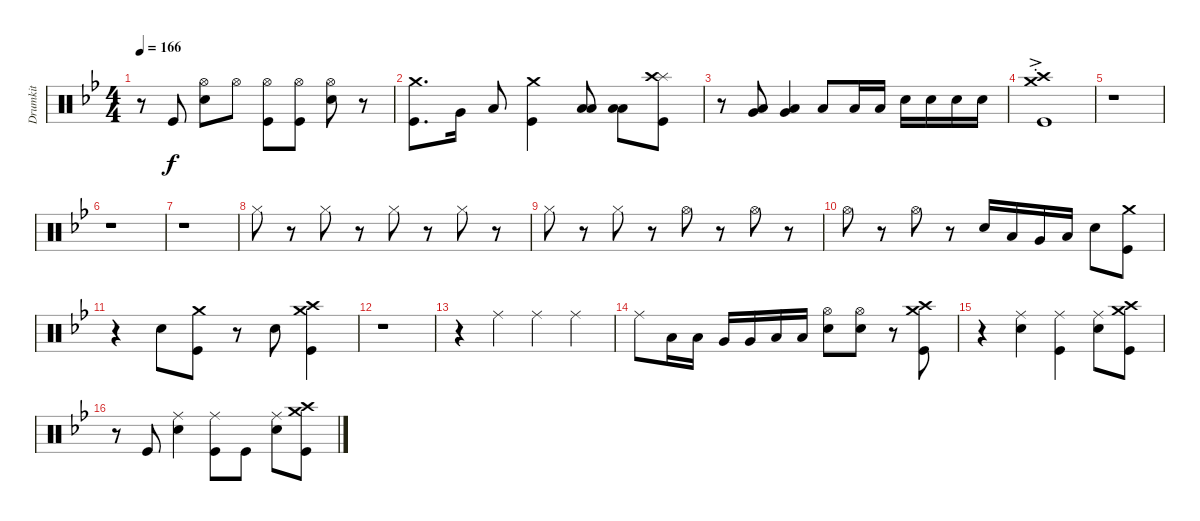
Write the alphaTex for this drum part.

\track ("Drumkit" "Drumkit") {instrument percussion}
\staff {score}
\articulation defaults
\ts (4 4)
\tempo 166
\clef neutral
\ks gminor
r.8{dy f} "Kick (hit)".8 ("Snare (hit) 2" "Hi-Hat (open)").8 "Hi-Hat (open)".8 ("Kick (hit)" "Hi-Hat (open)").8 ("Kick (hit)" "Hi-Hat (open)").8 ("Snare (hit) 2" "Hi-Hat (open)").8 r.8 |
("Kick (hit)" "Crash medium (hit)").8{d} "Very Low Tom (hit)".16 "Low Floor Tom (hit)".8 ("Kick (hit)" "Crash medium (hit)").4 ("Low Floor Tom (hit)" "Low Tom (hit)").8 ("Low Floor Tom (hit)" "Low Tom (hit)").8 ("Kick (hit)" "Splash (hit)" "Crash high (hit)").8 |
r.8 ("Low Tom (hit)" "Very Low Tom (hit)").8 ("Low Floor Tom (hit)" "Very Low Tom (hit)").4 "Low Floor Tom (hit)".8 "Low Tom (hit)".16 "Low Tom (hit)".16 "Snare (hit) 2".16 "Snare (hit) 2".16 "Snare (hit) 2".16 "Snare (hit) 2".16 |
("Kick (hit)" "Crash high (hit)"{ac st} "Crash medium (hit)"{ac st}).1 |
r.1 |
r.1 |
r.1 |
"Hi-Hat (closed)".8 r.8 "Hi-Hat (closed)".8 r.8 "Hi-Hat (closed)".8 r.8 "Hi-Hat (closed)".8 r.8 |
"Hi-Hat (closed)".8 r.8 "Hi-Hat (closed)".8 r.8 "Hi-Hat (open)".8 r.8 "Hi-Hat (open)".8 r.8 |
"Hi-Hat (open)".8 r.8 "Hi-Hat (open)".8 r.8 "Snare (hit) 2".16 "Low Tom (hit)".16 "Very Low Tom (hit)".16 "Low Floor Tom (hit)".16 "Snare (hit) 2".8 ("Kick (hit)" "Crash medium (hit)").8 |
r.4 "Snare (hit) 2".8 ("Kick (hit)" "Crash medium (hit)").8 r.8 "Snare (hit) 2".8 ("Kick (hit)" "Crash medium (hit)" "Crash high (hit)").4 |
r.1 |
r.4 "Ride (middle)".4 "Ride (middle)".4 "Ride (middle)".4 |
"Ride (middle)".8 "Low Tom (hit)".16 "Low Tom (hit)".16 "Very Low Tom (hit)".16 "Very Low Tom (hit)".16 "Low Floor Tom (hit)".16 "Low Floor Tom (hit)".16 ("Snare (hit) 2" "Hi-Hat (open)").8 ("Snare (hit) 2" "Hi-Hat (open)").8 r.8 ("Kick (hit)" "Crash high (hit)" "Crash medium (hit)").8 |
r.4 ("Snare (hit) 2" "Ride (middle)").4 ("Kick (hit)" "Ride (middle)").4 ("Snare (hit) 2" "Ride (middle)").8 ("Kick (hit)" "Crash high (hit)" "Crash medium (hit)").8 |
r.8 "Kick (hit)".8 ("Snare (hit) 2" "Ride (middle)").4 ("Kick (hit)" "Ride (middle)").8 "Kick (hit)".8 ("Snare (hit) 2" "Ride (middle)").8 ("Kick (hit)" "Crash high (hit)" "Crash medium (hit)").8
